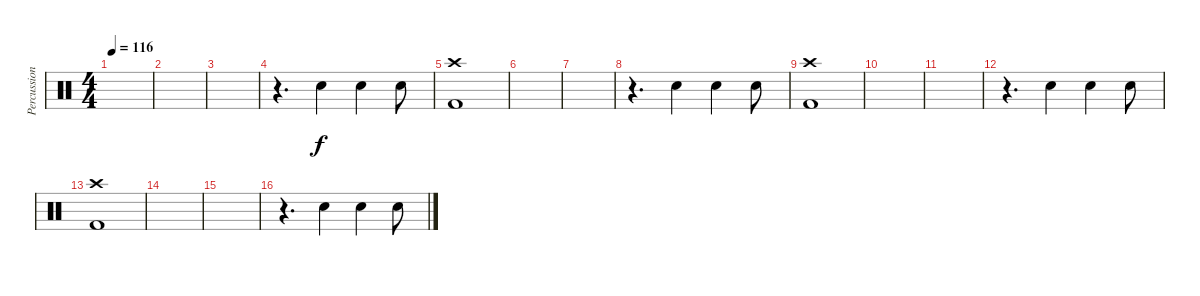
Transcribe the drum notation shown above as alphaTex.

\track ("Percussion" "Percussion") {instrument percussion}
\staff {score}
\articulation defaults
\ts (4 4)
\tempo 116
\clef neutral
\ks c
|
|
|
r.4{d} "Electric Snare (hit)".4 "Electric Snare (hit)".4 "Electric Snare (hit)".8 |
("Kick (hit) 2" "Crash high (hit)").1 |
|
|
r.4{d} "Electric Snare (hit)".4 "Electric Snare (hit)".4 "Electric Snare (hit)".8 |
("Kick (hit) 2" "Crash high (hit)").1 |
|
|
r.4{d} "Electric Snare (hit)".4 "Electric Snare (hit)".4 "Electric Snare (hit)".8 |
("Kick (hit) 2" "Crash high (hit)").1 |
|
|
r.4{d} "Electric Snare (hit)".4 "Electric Snare (hit)".4 "Electric Snare (hit)".8
